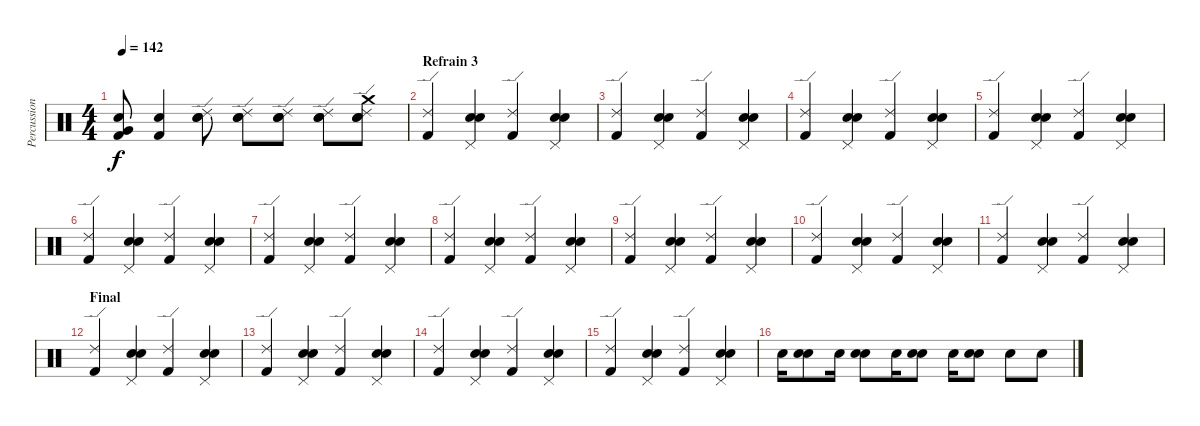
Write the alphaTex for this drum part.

\track ("Percussions" "Percussion") {instrument percussion}
\staff {score}
\articulation defaults
\ts (4 4)
\tempo 142
\clef neutral
\ks c
("Kick (hit) 2" "Very Low Tom (hit)" "Electric Snare (hit)").8{dy f} ("Kick (hit) 2" "Electric Snare (hit)").4 ("Snare (hit) 2" "Electric Snare (hit)" "Ride (edge) 2").8 ("Snare (hit) 2" "Electric Snare (hit)" "Ride (edge) 2").8 ("Snare (hit) 2" "Electric Snare (hit)" "Ride (edge) 2").8 ("Snare (hit) 2" "Electric Snare (hit)" "Ride (edge) 2").8 ("Snare (hit) 2" "Electric Snare (hit)" "Ride (edge) 2" "Crash medium (hit)").8 |
\section ("" "Refrain 3")
("Kick (hit) 2" "Ride (edge) 2").4 ("Snare (hit) 2" "Electric Snare (hit)" "Pedal Hi-Hat (hit)").4 ("Kick (hit) 2" "Ride (edge) 2").4 ("Snare (hit) 2" "Electric Snare (hit)" "Pedal Hi-Hat (hit)").4 |
("Kick (hit) 2" "Ride (edge) 2").4 ("Snare (hit) 2" "Electric Snare (hit)" "Pedal Hi-Hat (hit)").4 ("Kick (hit) 2" "Ride (edge) 2").4 ("Snare (hit) 2" "Electric Snare (hit)" "Pedal Hi-Hat (hit)").4 |
("Kick (hit) 2" "Ride (edge) 2").4 ("Snare (hit) 2" "Electric Snare (hit)" "Pedal Hi-Hat (hit)").4 ("Kick (hit) 2" "Ride (edge) 2").4 ("Snare (hit) 2" "Electric Snare (hit)" "Pedal Hi-Hat (hit)").4 |
("Kick (hit) 2" "Ride (edge) 2").4 ("Snare (hit) 2" "Electric Snare (hit)" "Pedal Hi-Hat (hit)").4 ("Kick (hit) 2" "Ride (edge) 2").4 ("Snare (hit) 2" "Electric Snare (hit)" "Pedal Hi-Hat (hit)").4 |
("Kick (hit) 2" "Ride (edge) 2").4 ("Snare (hit) 2" "Electric Snare (hit)" "Pedal Hi-Hat (hit)").4 ("Kick (hit) 2" "Ride (edge) 2").4 ("Snare (hit) 2" "Electric Snare (hit)" "Pedal Hi-Hat (hit)").4 |
("Kick (hit) 2" "Ride (edge) 2").4 ("Snare (hit) 2" "Electric Snare (hit)" "Pedal Hi-Hat (hit)").4 ("Kick (hit) 2" "Ride (edge) 2").4 ("Snare (hit) 2" "Electric Snare (hit)" "Pedal Hi-Hat (hit)").4 |
("Kick (hit) 2" "Ride (edge) 2").4 ("Snare (hit) 2" "Electric Snare (hit)" "Pedal Hi-Hat (hit)").4 ("Kick (hit) 2" "Ride (edge) 2").4 ("Snare (hit) 2" "Electric Snare (hit)" "Pedal Hi-Hat (hit)").4 |
("Kick (hit) 2" "Ride (edge) 2").4 ("Snare (hit) 2" "Electric Snare (hit)" "Pedal Hi-Hat (hit)").4 ("Kick (hit) 2" "Ride (edge) 2").4 ("Snare (hit) 2" "Electric Snare (hit)" "Pedal Hi-Hat (hit)").4 |
("Kick (hit) 2" "Ride (edge) 2").4 ("Snare (hit) 2" "Electric Snare (hit)" "Pedal Hi-Hat (hit)").4 ("Kick (hit) 2" "Ride (edge) 2").4 ("Snare (hit) 2" "Electric Snare (hit)" "Pedal Hi-Hat (hit)").4 |
("Kick (hit) 2" "Ride (edge) 2").4 ("Snare (hit) 2" "Electric Snare (hit)" "Pedal Hi-Hat (hit)").4 ("Kick (hit) 2" "Ride (edge) 2").4 ("Snare (hit) 2" "Electric Snare (hit)" "Pedal Hi-Hat (hit)").4 |
\section ("" "Final")
("Kick (hit) 2" "Ride (edge) 2").4 ("Snare (hit) 2" "Electric Snare (hit)" "Pedal Hi-Hat (hit)").4 ("Kick (hit) 2" "Ride (edge) 2").4 ("Snare (hit) 2" "Electric Snare (hit)" "Pedal Hi-Hat (hit)").4 |
("Kick (hit) 2" "Ride (edge) 2").4 ("Snare (hit) 2" "Electric Snare (hit)" "Pedal Hi-Hat (hit)").4 ("Kick (hit) 2" "Ride (edge) 2").4 ("Snare (hit) 2" "Electric Snare (hit)" "Pedal Hi-Hat (hit)").4 |
("Kick (hit) 2" "Ride (edge) 2").4 ("Snare (hit) 2" "Electric Snare (hit)" "Pedal Hi-Hat (hit)").4 ("Kick (hit) 2" "Ride (edge) 2").4 ("Snare (hit) 2" "Electric Snare (hit)" "Pedal Hi-Hat (hit)").4 |
("Kick (hit) 2" "Ride (edge) 2").4 ("Snare (hit) 2" "Electric Snare (hit)" "Pedal Hi-Hat (hit)").4 ("Kick (hit) 2" "Ride (edge) 2").4 ("Snare (hit) 2" "Electric Snare (hit)" "Pedal Hi-Hat (hit)").4 |
"Snare (hit) 2".16 ("Snare (hit) 2" "Electric Snare (hit)").8 "Snare (hit) 2".16 ("Snare (hit) 2" "Electric Snare (hit)").8 "Snare (hit) 2".16 ("Snare (hit) 2" "Electric Snare (hit)").8 "Snare (hit) 2".16 ("Snare (hit) 2" "Electric Snare (hit)").8 "Electric Snare (hit)".8 "Electric Snare (hit)".8
